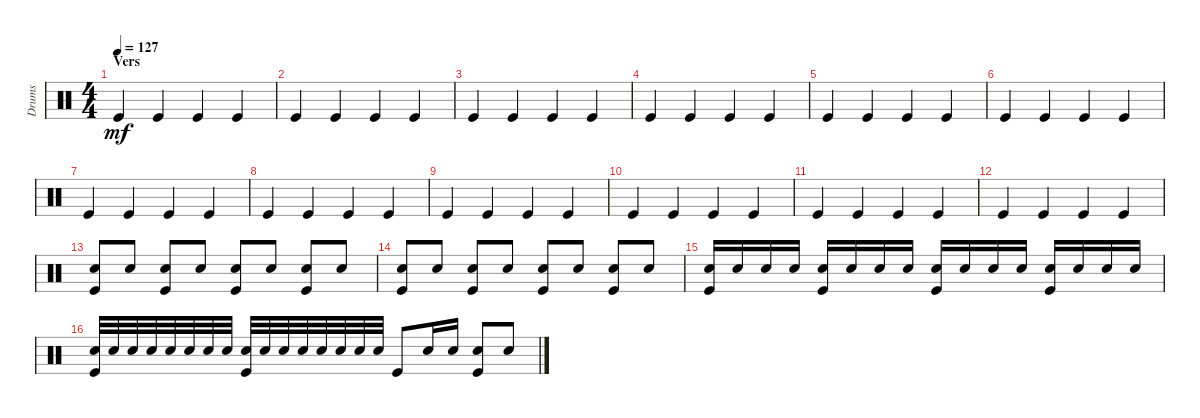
\track ("Drums" "Drums") {instrument percussion}
\staff {score}
\articulation defaults
\ts (4 4)
\section ("" "Vers")
\tempo 127
\clef neutral
\ks c "Kick (hit)".4{dy mf} "Kick (hit)".4 "Kick (hit)".4 "Kick (hit)".4
|
"Kick (hit)".4 "Kick (hit)".4 "Kick (hit)".4 "Kick (hit)".4 |
"Kick (hit)".4 "Kick (hit)".4 "Kick (hit)".4 "Kick (hit)".4 |
"Kick (hit)".4 "Kick (hit)".4 "Kick (hit)".4 "Kick (hit)".4 |
"Kick (hit)".4 "Kick (hit)".4 "Kick (hit)".4 "Kick (hit)".4 |
"Kick (hit)".4 "Kick (hit)".4 "Kick (hit)".4 "Kick (hit)".4 |
"Kick (hit)".4 "Kick (hit)".4 "Kick (hit)".4 "Kick (hit)".4 |
"Kick (hit)".4 "Kick (hit)".4 "Kick (hit)".4 "Kick (hit)".4 |
"Kick (hit)".4 "Kick (hit)".4 "Kick (hit)".4 "Kick (hit)".4 |
"Kick (hit)".4 "Kick (hit)".4 "Kick (hit)".4 "Kick (hit)".4 |
"Kick (hit)".4 "Kick (hit)".4 "Kick (hit)".4 "Kick (hit)".4 |
"Kick (hit)".4 "Kick (hit)".4 "Kick (hit)".4 "Kick (hit)".4 |
("Kick (hit)" "Snare (hit) 2").8 "Snare (hit) 2".8 ("Kick (hit)" "Snare (hit) 2").8 "Snare (hit) 2".8 ("Kick (hit)" "Snare (hit) 2").8 "Snare (hit) 2".8 ("Kick (hit)" "Snare (hit) 2").8 "Snare (hit) 2".8 |
("Kick (hit)" "Snare (hit) 2").8 "Snare (hit) 2".8 ("Kick (hit)" "Snare (hit) 2").8 "Snare (hit) 2".8 ("Kick (hit)" "Snare (hit) 2").8 "Snare (hit) 2".8 ("Kick (hit)" "Snare (hit) 2").8 "Snare (hit) 2".8 |
("Snare (hit) 2" "Kick (hit)").16 "Snare (hit) 2".16 "Snare (hit) 2".16 "Snare (hit) 2".16 ("Snare (hit) 2" "Kick (hit)").16 "Snare (hit) 2".16 "Snare (hit) 2".16 "Snare (hit) 2".16 ("Snare (hit) 2" "Kick (hit)").16 "Snare (hit) 2".16 "Snare (hit) 2".16 "Snare (hit) 2".16 ("Snare (hit) 2" "Kick (hit)").16 "Snare (hit) 2".16 "Snare (hit) 2".16 "Snare (hit) 2".16 |
("Snare (hit) 2" "Kick (hit)").32 "Snare (hit) 2".32 "Snare (hit) 2".32 "Snare (hit) 2".32 "Snare (hit) 2".32 "Snare (hit) 2".32 "Snare (hit) 2".32 "Snare (hit) 2".32 ("Snare (hit) 2" "Kick (hit)").32 "Snare (hit) 2".32 "Snare (hit) 2".32 "Snare (hit) 2".32 "Snare (hit) 2".32 "Snare (hit) 2".32 "Snare (hit) 2".32 "Snare (hit) 2".32 "Kick (hit)".8 "Snare (hit) 2".16 "Snare (hit) 2".16 ("Kick (hit)" "Snare (hit) 2").8 "Snare (hit) 2".8
